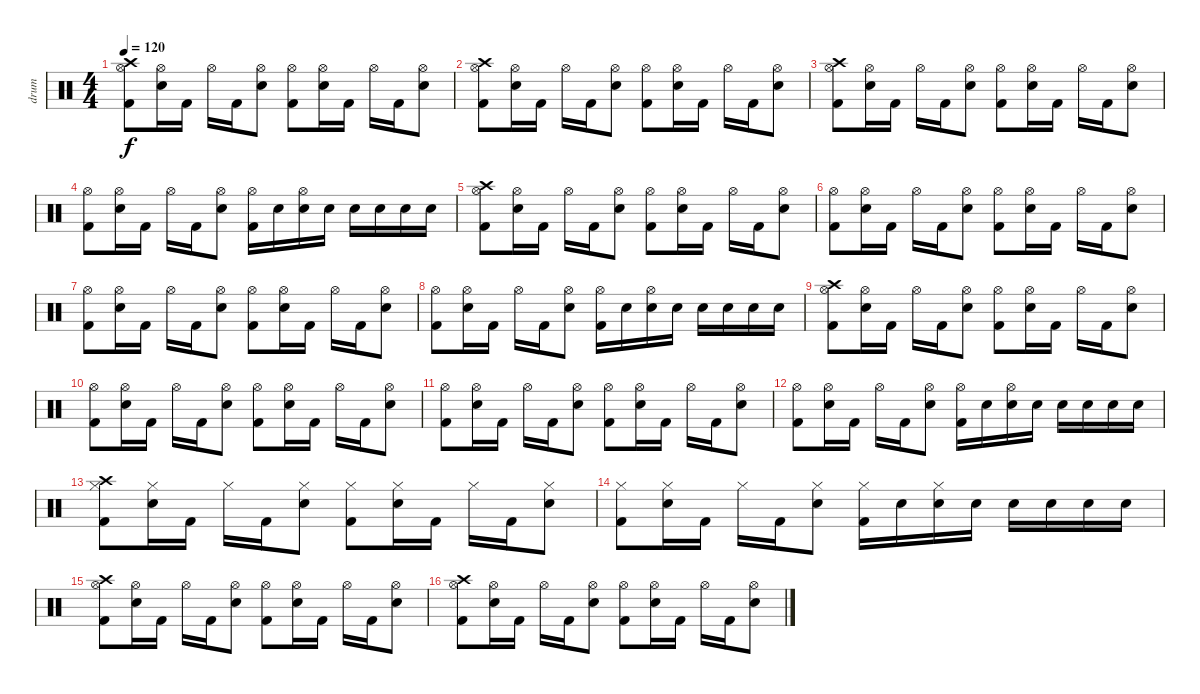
\track ("drum" "drum") {instrument percussion}
\staff {score}
\articulation defaults
\ts (4 4)
\tempo 120
\clef neutral
\ks c
("Crash high (hit)" "Kick (hit) 2" "Hi-Hat (open)").8{dy f} ("Snare (hit) 2" "Hi-Hat (open)").16 "Kick (hit) 2".16 "Hi-Hat (open)".16 "Kick (hit) 2".16 ("Snare (hit) 2" "Hi-Hat (open)").8 ("Kick (hit) 2" "Hi-Hat (open)").8 ("Snare (hit) 2" "Hi-Hat (open)").16 "Kick (hit) 2".16 "Hi-Hat (open)".16 "Kick (hit) 2".16 ("Snare (hit) 2" "Hi-Hat (open)").8 |
("Crash high (hit)" "Kick (hit) 2" "Hi-Hat (open)").8 ("Snare (hit) 2" "Hi-Hat (open)").16 "Kick (hit) 2".16 "Hi-Hat (open)".16 "Kick (hit) 2".16 ("Snare (hit) 2" "Hi-Hat (open)").8 ("Kick (hit) 2" "Hi-Hat (open)").8 ("Snare (hit) 2" "Hi-Hat (open)").16 "Kick (hit) 2".16 "Hi-Hat (open)".16 "Kick (hit) 2".16 ("Snare (hit) 2" "Hi-Hat (open)").8 |
("Crash high (hit)" "Kick (hit) 2" "Hi-Hat (open)").8 ("Snare (hit) 2" "Hi-Hat (open)").16 "Kick (hit) 2".16 "Hi-Hat (open)".16 "Kick (hit) 2".16 ("Snare (hit) 2" "Hi-Hat (open)").8 ("Kick (hit) 2" "Hi-Hat (open)").8 ("Snare (hit) 2" "Hi-Hat (open)").16 "Kick (hit) 2".16 "Hi-Hat (open)".16 "Kick (hit) 2".16 ("Snare (hit) 2" "Hi-Hat (open)").8 |
("Kick (hit) 2" "Hi-Hat (open)").8 ("Snare (hit) 2" "Hi-Hat (open)").16 "Kick (hit) 2".16 "Hi-Hat (open)".16 "Kick (hit) 2".16 ("Snare (hit) 2" "Hi-Hat (open)").8 ("Kick (hit) 2" "Hi-Hat (open)").16 "Snare (hit) 2".16 ("Snare (hit) 2" "Hi-Hat (open)").16 "Snare (hit) 2".16 "Snare (hit) 2".16 "Snare (hit) 2".16 "Snare (hit) 2".16 "Snare (hit) 2".16 |
("Crash high (hit)" "Kick (hit) 2" "Hi-Hat (open)").8 ("Snare (hit) 2" "Hi-Hat (open)").16 "Kick (hit) 2".16 "Hi-Hat (open)".16 "Kick (hit) 2".16 ("Snare (hit) 2" "Hi-Hat (open)").8 ("Kick (hit) 2" "Hi-Hat (open)").8 ("Snare (hit) 2" "Hi-Hat (open)").16 "Kick (hit) 2".16 "Hi-Hat (open)".16 "Kick (hit) 2".16 ("Snare (hit) 2" "Hi-Hat (open)").8 |
("Kick (hit) 2" "Hi-Hat (open)").8 ("Snare (hit) 2" "Hi-Hat (open)").16 "Kick (hit) 2".16 "Hi-Hat (open)".16 "Kick (hit) 2".16 ("Snare (hit) 2" "Hi-Hat (open)").8 ("Kick (hit) 2" "Hi-Hat (open)").8 ("Snare (hit) 2" "Hi-Hat (open)").16 "Kick (hit) 2".16 "Hi-Hat (open)".16 "Kick (hit) 2".16 ("Snare (hit) 2" "Hi-Hat (open)").8 |
("Kick (hit) 2" "Hi-Hat (open)").8 ("Snare (hit) 2" "Hi-Hat (open)").16 "Kick (hit) 2".16 "Hi-Hat (open)".16 "Kick (hit) 2".16 ("Snare (hit) 2" "Hi-Hat (open)").8 ("Kick (hit) 2" "Hi-Hat (open)").8 ("Snare (hit) 2" "Hi-Hat (open)").16 "Kick (hit) 2".16 "Hi-Hat (open)".16 "Kick (hit) 2".16 ("Snare (hit) 2" "Hi-Hat (open)").8 |
("Kick (hit) 2" "Hi-Hat (open)").8 ("Snare (hit) 2" "Hi-Hat (open)").16 "Kick (hit) 2".16 "Hi-Hat (open)".16 "Kick (hit) 2".16 ("Snare (hit) 2" "Hi-Hat (open)").8 ("Kick (hit) 2" "Hi-Hat (open)").16 "Snare (hit) 2".16 ("Snare (hit) 2" "Hi-Hat (open)").16 "Snare (hit) 2".16 "Snare (hit) 2".16 "Snare (hit) 2".16 "Snare (hit) 2".16 "Snare (hit) 2".16 |
("Crash high (hit)" "Kick (hit) 2" "Hi-Hat (open)").8 ("Snare (hit) 2" "Hi-Hat (open)").16 "Kick (hit) 2".16 "Hi-Hat (open)".16 "Kick (hit) 2".16 ("Snare (hit) 2" "Hi-Hat (open)").8 ("Kick (hit) 2" "Hi-Hat (open)").8 ("Snare (hit) 2" "Hi-Hat (open)").16 "Kick (hit) 2".16 "Hi-Hat (open)".16 "Kick (hit) 2".16 ("Snare (hit) 2" "Hi-Hat (open)").8 |
("Kick (hit) 2" "Hi-Hat (open)").8 ("Snare (hit) 2" "Hi-Hat (open)").16 "Kick (hit) 2".16 "Hi-Hat (open)".16 "Kick (hit) 2".16 ("Snare (hit) 2" "Hi-Hat (open)").8 ("Kick (hit) 2" "Hi-Hat (open)").8 ("Snare (hit) 2" "Hi-Hat (open)").16 "Kick (hit) 2".16 "Hi-Hat (open)".16 "Kick (hit) 2".16 ("Snare (hit) 2" "Hi-Hat (open)").8 |
("Kick (hit) 2" "Hi-Hat (open)").8 ("Snare (hit) 2" "Hi-Hat (open)").16 "Kick (hit) 2".16 "Hi-Hat (open)".16 "Kick (hit) 2".16 ("Snare (hit) 2" "Hi-Hat (open)").8 ("Kick (hit) 2" "Hi-Hat (open)").8 ("Snare (hit) 2" "Hi-Hat (open)").16 "Kick (hit) 2".16 "Hi-Hat (open)".16 "Kick (hit) 2".16 ("Snare (hit) 2" "Hi-Hat (open)").8 |
("Kick (hit) 2" "Hi-Hat (open)").8 ("Snare (hit) 2" "Hi-Hat (open)").16 "Kick (hit) 2".16 "Hi-Hat (open)".16 "Kick (hit) 2".16 ("Snare (hit) 2" "Hi-Hat (open)").8 ("Kick (hit) 2" "Hi-Hat (open)").16 "Snare (hit) 2".16 ("Snare (hit) 2" "Hi-Hat (open)").16 "Snare (hit) 2".16 "Snare (hit) 2".16 "Snare (hit) 2".16 "Snare (hit) 2".16 "Snare (hit) 2".16 |
("Crash high (hit)" "Kick (hit) 2" "Hi-Hat (closed)").8 ("Snare (hit) 2" "Hi-Hat (closed)").16 "Kick (hit) 2".16 "Hi-Hat (closed)".16 "Kick (hit) 2".16 ("Snare (hit) 2" "Hi-Hat (closed)").8 ("Kick (hit) 2" "Hi-Hat (closed)").8 ("Snare (hit) 2" "Hi-Hat (closed)").16 "Kick (hit) 2".16 "Hi-Hat (closed)".16 "Kick (hit) 2".16 ("Snare (hit) 2" "Hi-Hat (closed)").8 |
("Kick (hit) 2" "Hi-Hat (closed)").8 ("Snare (hit) 2" "Hi-Hat (closed)").16 "Kick (hit) 2".16 "Hi-Hat (closed)".16 "Kick (hit) 2".16 ("Snare (hit) 2" "Hi-Hat (closed)").8 ("Kick (hit) 2" "Hi-Hat (closed)").16 "Snare (hit) 2".16 ("Snare (hit) 2" "Hi-Hat (closed)").16 "Snare (hit) 2".16 "Snare (hit) 2".16 "Snare (hit) 2".16 "Snare (hit) 2".16 "Snare (hit) 2".16 |
("Crash high (hit)" "Kick (hit) 2" "Hi-Hat (open)").8 ("Snare (hit) 2" "Hi-Hat (open)").16 "Kick (hit) 2".16 "Hi-Hat (open)".16 "Kick (hit) 2".16 ("Snare (hit) 2" "Hi-Hat (open)").8 ("Kick (hit) 2" "Hi-Hat (open)").8 ("Snare (hit) 2" "Hi-Hat (open)").16 "Kick (hit) 2".16 "Hi-Hat (open)".16 "Kick (hit) 2".16 ("Snare (hit) 2" "Hi-Hat (open)").8 |
("Crash high (hit)" "Kick (hit) 2" "Hi-Hat (open)").8 ("Snare (hit) 2" "Hi-Hat (open)").16 "Kick (hit) 2".16 "Hi-Hat (open)".16 "Kick (hit) 2".16 ("Snare (hit) 2" "Hi-Hat (open)").8 ("Kick (hit) 2" "Hi-Hat (open)").8 ("Snare (hit) 2" "Hi-Hat (open)").16 "Kick (hit) 2".16 "Hi-Hat (open)".16 "Kick (hit) 2".16 ("Snare (hit) 2" "Hi-Hat (open)").8
